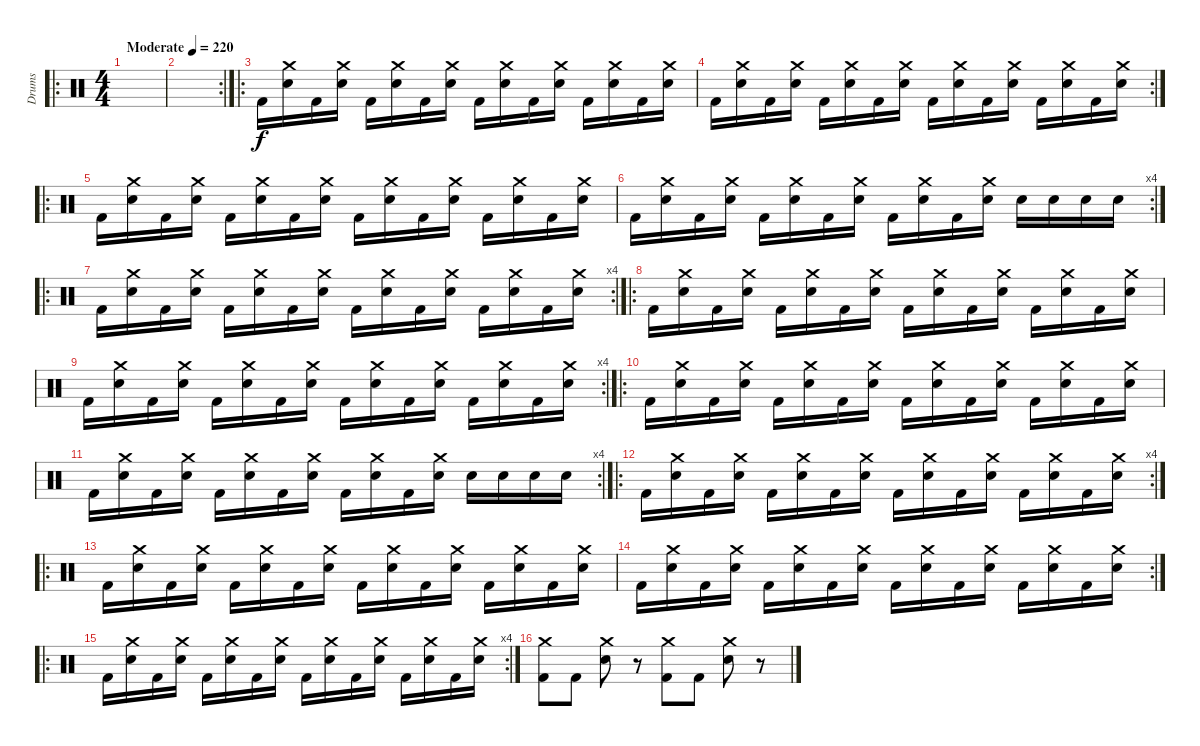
\track ("Drums" "Drums") {instrument percussion}
\staff {score}
\articulation defaults
\ro
\ts (4 4)
\tempo (220 "Moderate")
\clef neutral
\ks c
|
\rc 2
|
\ro "Kick (hit) 2".16
("Crash medium (hit)" "Electric Snare (hit)").16 "Kick (hit) 2".16 ("Crash medium (hit)" "Electric Snare (hit)").16 "Kick (hit) 2".16 ("Crash medium (hit)" "Electric Snare (hit)").16 "Kick (hit) 2".16 ("Crash medium (hit)" "Electric Snare (hit)").16 "Kick (hit) 2".16 ("Crash medium (hit)" "Electric Snare (hit)").16 "Kick (hit) 2".16 ("Crash medium (hit)" "Electric Snare (hit)").16 "Kick (hit) 2".16 ("Crash medium (hit)" "Electric Snare (hit)").16 "Kick (hit) 2".16 ("Crash medium (hit)" "Electric Snare (hit)").16 |
\rc 2 "Kick (hit) 2".16
("Crash medium (hit)" "Electric Snare (hit)").16 "Kick (hit) 2".16 ("Crash medium (hit)" "Electric Snare (hit)").16 "Kick (hit) 2".16 ("Crash medium (hit)" "Electric Snare (hit)").16 "Kick (hit) 2".16 ("Crash medium (hit)" "Electric Snare (hit)").16 "Kick (hit) 2".16 ("Crash medium (hit)" "Electric Snare (hit)").16 "Kick (hit) 2".16 ("Crash medium (hit)" "Electric Snare (hit)").16 "Kick (hit) 2".16 ("Crash medium (hit)" "Electric Snare (hit)").16 "Kick (hit) 2".16 ("Crash medium (hit)" "Electric Snare (hit)").16 |
\ro "Kick (hit) 2".16
("Crash medium (hit)" "Electric Snare (hit)").16 "Kick (hit) 2".16 ("Crash medium (hit)" "Electric Snare (hit)").16 "Kick (hit) 2".16 ("Crash medium (hit)" "Electric Snare (hit)").16 "Kick (hit) 2".16 ("Crash medium (hit)" "Electric Snare (hit)").16 "Kick (hit) 2".16 ("Crash medium (hit)" "Electric Snare (hit)").16 "Kick (hit) 2".16 ("Crash medium (hit)" "Electric Snare (hit)").16 "Kick (hit) 2".16 ("Crash medium (hit)" "Electric Snare (hit)").16 "Kick (hit) 2".16 ("Crash medium (hit)" "Electric Snare (hit)").16 |
\rc 4 "Kick (hit) 2".16
("Crash medium (hit)" "Electric Snare (hit)").16 "Kick (hit) 2".16 ("Crash medium (hit)" "Electric Snare (hit)").16 "Kick (hit) 2".16 ("Crash medium (hit)" "Electric Snare (hit)").16 "Kick (hit) 2".16 ("Crash medium (hit)" "Electric Snare (hit)").16 "Kick (hit) 2".16 ("Crash medium (hit)" "Electric Snare (hit)").16 "Kick (hit) 2".16 ("Crash medium (hit)" "Electric Snare (hit)").16 "Electric Snare (hit)".16 "Electric Snare (hit)".16 "Electric Snare (hit)".16 "Electric Snare (hit)".16 |
\ro
\rc 4 "Kick (hit) 2".16
("Crash medium (hit)" "Electric Snare (hit)").16 "Kick (hit) 2".16 ("Crash medium (hit)" "Electric Snare (hit)").16 "Kick (hit) 2".16 ("Crash medium (hit)" "Electric Snare (hit)").16 "Kick (hit) 2".16 ("Crash medium (hit)" "Electric Snare (hit)").16 "Kick (hit) 2".16 ("Crash medium (hit)" "Electric Snare (hit)").16 "Kick (hit) 2".16 ("Crash medium (hit)" "Electric Snare (hit)").16 "Kick (hit) 2".16 ("Crash medium (hit)" "Electric Snare (hit)").16 "Kick (hit) 2".16 ("Crash medium (hit)" "Electric Snare (hit)").16 |
\ro "Kick (hit) 2".16
("Crash medium (hit)" "Electric Snare (hit)").16 "Kick (hit) 2".16 ("Crash medium (hit)" "Electric Snare (hit)").16 "Kick (hit) 2".16 ("Crash medium (hit)" "Electric Snare (hit)").16 "Kick (hit) 2".16 ("Crash medium (hit)" "Electric Snare (hit)").16 "Kick (hit) 2".16 ("Crash medium (hit)" "Electric Snare (hit)").16 "Kick (hit) 2".16 ("Crash medium (hit)" "Electric Snare (hit)").16 "Kick (hit) 2".16 ("Crash medium (hit)" "Electric Snare (hit)").16 "Kick (hit) 2".16 ("Crash medium (hit)" "Electric Snare (hit)").16 |
\rc 4 "Kick (hit) 2".16
("Crash medium (hit)" "Electric Snare (hit)").16 "Kick (hit) 2".16 ("Crash medium (hit)" "Electric Snare (hit)").16 "Kick (hit) 2".16 ("Crash medium (hit)" "Electric Snare (hit)").16 "Kick (hit) 2".16 ("Crash medium (hit)" "Electric Snare (hit)").16 "Kick (hit) 2".16 ("Crash medium (hit)" "Electric Snare (hit)").16 "Kick (hit) 2".16 ("Crash medium (hit)" "Electric Snare (hit)").16 "Kick (hit) 2".16 ("Crash medium (hit)" "Electric Snare (hit)").16 "Kick (hit) 2".16 ("Crash medium (hit)" "Electric Snare (hit)").16 |
\ro "Kick (hit) 2".16
("Crash medium (hit)" "Electric Snare (hit)").16 "Kick (hit) 2".16 ("Crash medium (hit)" "Electric Snare (hit)").16 "Kick (hit) 2".16 ("Crash medium (hit)" "Electric Snare (hit)").16 "Kick (hit) 2".16 ("Crash medium (hit)" "Electric Snare (hit)").16 "Kick (hit) 2".16 ("Crash medium (hit)" "Electric Snare (hit)").16 "Kick (hit) 2".16 ("Crash medium (hit)" "Electric Snare (hit)").16 "Kick (hit) 2".16 ("Crash medium (hit)" "Electric Snare (hit)").16 "Kick (hit) 2".16 ("Crash medium (hit)" "Electric Snare (hit)").16 |
\rc 4 "Kick (hit) 2".16
("Crash medium (hit)" "Electric Snare (hit)").16 "Kick (hit) 2".16 ("Crash medium (hit)" "Electric Snare (hit)").16 "Kick (hit) 2".16 ("Crash medium (hit)" "Electric Snare (hit)").16 "Kick (hit) 2".16 ("Crash medium (hit)" "Electric Snare (hit)").16 "Kick (hit) 2".16 ("Crash medium (hit)" "Electric Snare (hit)").16 "Kick (hit) 2".16 ("Crash medium (hit)" "Electric Snare (hit)").16 "Electric Snare (hit)".16 "Electric Snare (hit)".16 "Electric Snare (hit)".16 "Electric Snare (hit)".16 |
\ro
\rc 4 "Kick (hit) 2".16
("Crash medium (hit)" "Electric Snare (hit)").16 "Kick (hit) 2".16 ("Crash medium (hit)" "Electric Snare (hit)").16 "Kick (hit) 2".16 ("Crash medium (hit)" "Electric Snare (hit)").16 "Kick (hit) 2".16 ("Crash medium (hit)" "Electric Snare (hit)").16 "Kick (hit) 2".16 ("Crash medium (hit)" "Electric Snare (hit)").16 "Kick (hit) 2".16 ("Crash medium (hit)" "Electric Snare (hit)").16 "Kick (hit) 2".16 ("Crash medium (hit)" "Electric Snare (hit)").16 "Kick (hit) 2".16 ("Crash medium (hit)" "Electric Snare (hit)").16 |
\ro "Kick (hit) 2".16
("Crash medium (hit)" "Electric Snare (hit)").16 "Kick (hit) 2".16 ("Crash medium (hit)" "Electric Snare (hit)").16 "Kick (hit) 2".16 ("Crash medium (hit)" "Electric Snare (hit)").16 "Kick (hit) 2".16 ("Crash medium (hit)" "Electric Snare (hit)").16 "Kick (hit) 2".16 ("Crash medium (hit)" "Electric Snare (hit)").16 "Kick (hit) 2".16 ("Crash medium (hit)" "Electric Snare (hit)").16 "Kick (hit) 2".16 ("Crash medium (hit)" "Electric Snare (hit)").16 "Kick (hit) 2".16 ("Crash medium (hit)" "Electric Snare (hit)").16 |
\rc 2 "Kick (hit) 2".16
("Crash medium (hit)" "Electric Snare (hit)").16 "Kick (hit) 2".16 ("Crash medium (hit)" "Electric Snare (hit)").16 "Kick (hit) 2".16 ("Crash medium (hit)" "Electric Snare (hit)").16 "Kick (hit) 2".16 ("Crash medium (hit)" "Electric Snare (hit)").16 "Kick (hit) 2".16 ("Crash medium (hit)" "Electric Snare (hit)").16 "Kick (hit) 2".16 ("Crash medium (hit)" "Electric Snare (hit)").16 "Kick (hit) 2".16 ("Crash medium (hit)" "Electric Snare (hit)").16 "Kick (hit) 2".16 ("Crash medium (hit)" "Electric Snare (hit)").16 |
\ro
\rc 4 "Kick (hit) 2".16
("Crash medium (hit)" "Electric Snare (hit)").16 "Kick (hit) 2".16 ("Crash medium (hit)" "Electric Snare (hit)").16 "Kick (hit) 2".16 ("Crash medium (hit)" "Electric Snare (hit)").16 "Kick (hit) 2".16 ("Crash medium (hit)" "Electric Snare (hit)").16 "Kick (hit) 2".16 ("Crash medium (hit)" "Electric Snare (hit)").16 "Kick (hit) 2".16 ("Crash medium (hit)" "Electric Snare (hit)").16 "Kick (hit) 2".16 ("Crash medium (hit)" "Electric Snare (hit)").16 "Kick (hit) 2".16 ("Crash medium (hit)" "Electric Snare (hit)").16 |
("Crash medium (hit)" "Kick (hit) 2").8 "Kick (hit) 2".8 ("Crash medium (hit)" "Electric Snare (hit)").8 r.8 ("Crash medium (hit)" "Kick (hit) 2").8 "Kick (hit) 2".8 ("Crash medium (hit)" "Electric Snare (hit)").8 r.8
